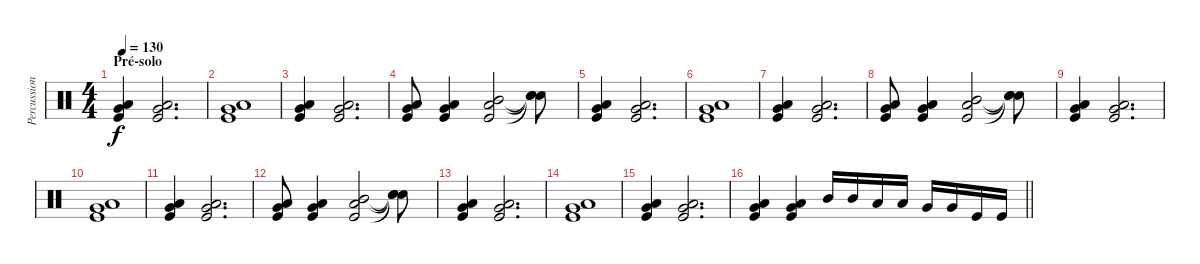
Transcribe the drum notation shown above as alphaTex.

\track ("Percussions" "Percussion") {instrument percussion}
\staff {score}
\articulation defaults
\ts (4 4)
\section ("" "Pré-solo")
\tempo 130
\clef neutral
\ks c
("Low Tom (hit)" "Very Low Tom (hit)" "Kick (hit)").4{dy f} ("Low Tom (hit)" "Very Low Tom (hit)" "Kick (hit)").2{d} |
("Low Tom (hit)" "Very Low Tom (hit)" "Kick (hit)").1 |
("Low Tom (hit)" "Very Low Tom (hit)" "Kick (hit)").4 ("Low Tom (hit)" "Very Low Tom (hit)" "Kick (hit)").2{d} |
("Low Tom (hit)" "Very Low Tom (hit)" "Kick (hit)").8 ("Low Tom (hit)" "Very Low Tom (hit)" "Kick (hit)").4 ("Mid Tom (hit)" "Low Tom (hit)" "Kick (hit)").2 ("Snare (hit)"{t} "Snare (hit)"{t} "Snare (hit)"{t}).8 |
("Low Tom (hit)" "Very Low Tom (hit)" "Kick (hit)").4 ("Low Tom (hit)" "Very Low Tom (hit)" "Kick (hit)").2{d} |
("Low Tom (hit)" "Very Low Tom (hit)" "Kick (hit)").1 |
("Low Tom (hit)" "Very Low Tom (hit)" "Kick (hit)").4 ("Low Tom (hit)" "Very Low Tom (hit)" "Kick (hit)").2{d} |
("Low Tom (hit)" "Very Low Tom (hit)" "Kick (hit)").8 ("Low Tom (hit)" "Very Low Tom (hit)" "Kick (hit)").4 ("Mid Tom (hit)" "Low Tom (hit)" "Kick (hit)").2 ("Snare (hit)"{t} "Snare (hit)"{t} "Snare (hit)"{t}).8 |
("Low Tom (hit)" "Very Low Tom (hit)" "Kick (hit)").4 ("Low Tom (hit)" "Very Low Tom (hit)" "Kick (hit)").2{d} |
("Low Tom (hit)" "Very Low Tom (hit)" "Kick (hit)").1 |
("Low Tom (hit)" "Very Low Tom (hit)" "Kick (hit)").4 ("Low Tom (hit)" "Very Low Tom (hit)" "Kick (hit)").2{d} |
("Low Tom (hit)" "Very Low Tom (hit)" "Kick (hit)").8 ("Low Tom (hit)" "Very Low Tom (hit)" "Kick (hit)").4 ("Mid Tom (hit)" "Low Tom (hit)" "Kick (hit)").2 ("Snare (hit)"{t} "Snare (hit)"{t} "Snare (hit)"{t}).8 |
("Low Tom (hit)" "Very Low Tom (hit)" "Kick (hit)").4 ("Low Tom (hit)" "Very Low Tom (hit)" "Kick (hit)").2{d} |
("Low Tom (hit)" "Very Low Tom (hit)" "Kick (hit)").1 |
("Low Tom (hit)" "Very Low Tom (hit)" "Kick (hit)").4 ("Low Tom (hit)" "Very Low Tom (hit)" "Kick (hit)").2{d} |
\barLineRight lightlight
("Low Tom (hit)" "Very Low Tom (hit)" "Kick (hit)").4 ("Low Tom (hit)" "Very Low Tom (hit)" "Kick (hit)").4 "Mid Tom (hit)".16 "Mid Tom (hit)".16 "Low Tom (hit)".16 "Low Tom (hit)".16 "Very Low Tom (hit)".16 "Very Low Tom (hit)".16 "Kick (hit)".16 "Kick (hit)".16
